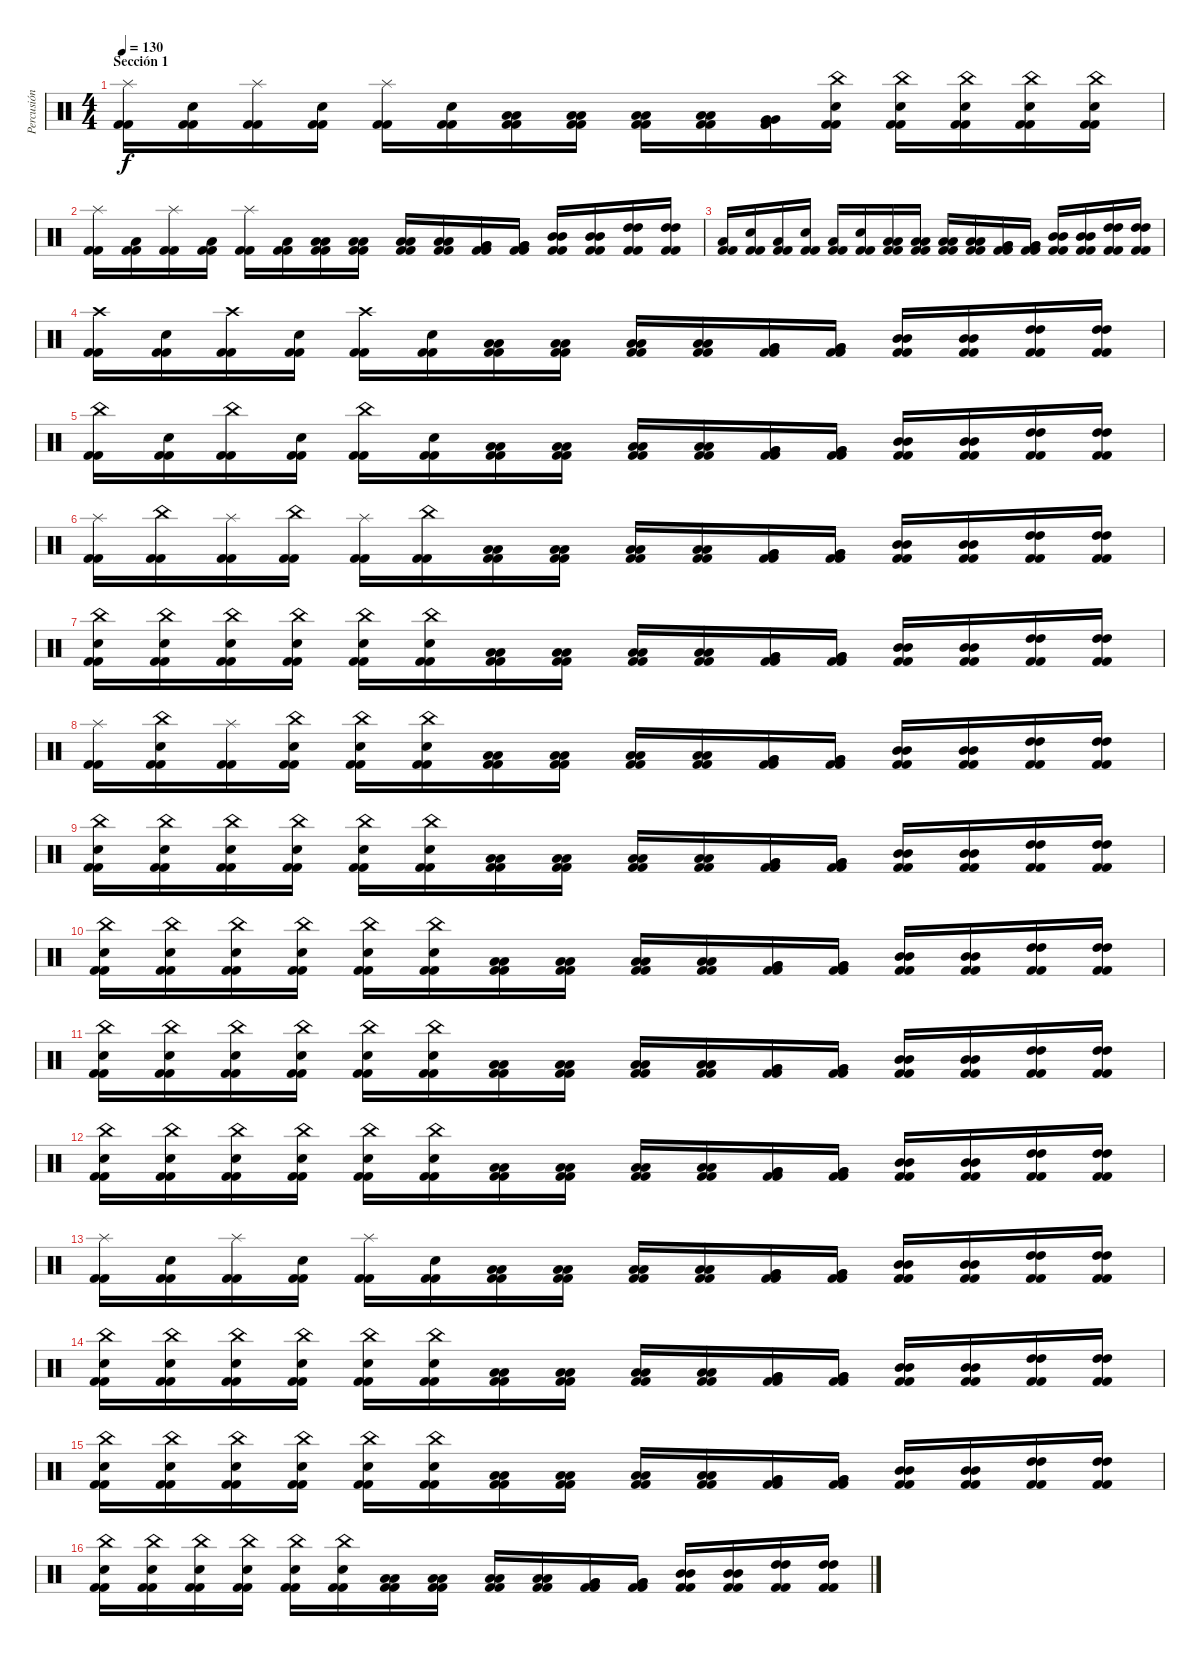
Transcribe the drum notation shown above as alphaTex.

\track ("Percusión" "Percusión") {instrument percussion}
\staff {score}
\articulation defaults
\ts (4 4)
\section ("" "Sección 1")
\tempo 130
\clef neutral
\ks c
("Splash (hit)" "Kick (hit) 2" "Kick (hit) 2").16{dy f volume 0} ("Electric Snare (hit)" "Kick (hit) 2" "Kick (hit) 2").16{volume 16} ("Splash (hit)" "Kick (hit) 2" "Kick (hit) 2").16 ("Electric Snare (hit)" "Kick (hit) 2" "Kick (hit) 2").16 ("Splash (hit)" "Kick (hit) 2" "Kick (hit) 2").16 ("Electric Snare (hit)" "Kick (hit) 2" "Kick (hit) 2").16 ("Low Tom (hit)" "Low Tom (hit)" "Kick (hit) 2" "Kick (hit) 2").16 ("Low Tom (hit)" "Low Tom (hit)" "Kick (hit) 2" "Kick (hit) 2").16 ("Low Floor Tom (hit)" "Low Floor Tom (hit)" "Kick (hit) 2" "Kick (hit) 2").16 ("Low Floor Tom (hit)" "Low Floor Tom (hit)" "Kick (hit) 2" "Kick (hit) 2").16 ("Very Low Tom (hit)" "Very Low Tom (hit)" "Kick (hit) 2" "Kick (hit) 2").16 ("Electric Snare (hit)" "China (hit)" "Kick (hit) 2" "Kick (hit) 2").16 ("Electric Snare (hit)" "China (hit)" "Kick (hit) 2" "Kick (hit) 2").16 ("Electric Snare (hit)" "China (hit)" "Kick (hit) 2" "Kick (hit) 2").16 ("Electric Snare (hit)" "China (hit)" "Kick (hit) 2" "Kick (hit) 2").16 ("Electric Snare (hit)" "China (hit)" "Kick (hit) 2" "Kick (hit) 2").16 |
("Splash (hit)" "Kick (hit) 2" "Kick (hit) 2").16 ("Low Tom (hit)" "Kick (hit) 2" "Kick (hit) 2").16 ("Splash (hit)" "Kick (hit) 2" "Kick (hit) 2").16 ("Low Tom (hit)" "Kick (hit) 2" "Kick (hit) 2").16 ("Splash (hit)" "Kick (hit) 2" "Kick (hit) 2").16 ("Low Tom (hit)" "Kick (hit) 2" "Kick (hit) 2").16 ("Low Tom (hit)" "Low Tom (hit)" "Kick (hit) 2" "Kick (hit) 2").16 ("Low Tom (hit)" "Low Tom (hit)" "Kick (hit) 2" "Kick (hit) 2").16 ("Low Floor Tom (hit)" "Low Floor Tom (hit)" "Kick (hit) 2" "Kick (hit) 2").16 ("Low Floor Tom (hit)" "Low Floor Tom (hit)" "Kick (hit) 2" "Kick (hit) 2").16 ("Very Low Tom (hit)" "Very Low Tom (hit)" "Kick (hit) 2" "Kick (hit) 2").16 ("Very Low Tom (hit)" "Very Low Tom (hit)" "Kick (hit) 2" "Kick (hit) 2").16 ("Mid Tom (hit)" "Mid Tom (hit)" "Kick (hit) 2" "Kick (hit) 2").16 ("Mid Tom (hit)" "Mid Tom (hit)" "Kick (hit) 2" "Kick (hit) 2").16 ("High Tom (hit)" "High Tom (hit)" "Kick (hit) 2" "Kick (hit) 2").16 ("High Tom (hit)" "High Tom (hit)" "Kick (hit) 2" "Kick (hit) 2").16 |
("Low Tom (hit)" "Kick (hit) 2" "Kick (hit) 2").16 ("Electric Snare (hit)" "Kick (hit) 2" "Kick (hit) 2").16 ("Low Tom (hit)" "Kick (hit) 2" "Kick (hit) 2").16 ("Electric Snare (hit)" "Kick (hit) 2" "Kick (hit) 2").16 ("Low Tom (hit)" "Kick (hit) 2" "Kick (hit) 2").16 ("Electric Snare (hit)" "Kick (hit) 2" "Kick (hit) 2").16 ("Low Tom (hit)" "Low Tom (hit)" "Kick (hit) 2" "Kick (hit) 2").16 ("Low Tom (hit)" "Low Tom (hit)" "Kick (hit) 2" "Kick (hit) 2").16 ("Low Floor Tom (hit)" "Low Floor Tom (hit)" "Kick (hit) 2" "Kick (hit) 2").16 ("Low Floor Tom (hit)" "Low Floor Tom (hit)" "Kick (hit) 2" "Kick (hit) 2").16 ("Very Low Tom (hit)" "Very Low Tom (hit)" "Kick (hit) 2" "Kick (hit) 2").16 ("Very Low Tom (hit)" "Very Low Tom (hit)" "Kick (hit) 2" "Kick (hit) 2").16 ("Mid Tom (hit)" "Mid Tom (hit)" "Kick (hit) 2" "Kick (hit) 2").16 ("Mid Tom (hit)" "Mid Tom (hit)" "Kick (hit) 2" "Kick (hit) 2").16 ("High Tom (hit)" "High Tom (hit)" "Kick (hit) 2" "Kick (hit) 2").16 ("High Tom (hit)" "High Tom (hit)" "Kick (hit) 2" "Kick (hit) 2").16 |
("Crash high (hit)" "Kick (hit) 2" "Kick (hit) 2").16 ("Electric Snare (hit)" "Kick (hit) 2" "Kick (hit) 2").16 ("Crash high (hit)" "Kick (hit) 2" "Kick (hit) 2").16 ("Electric Snare (hit)" "Kick (hit) 2" "Kick (hit) 2").16 ("Crash high (hit)" "Kick (hit) 2" "Kick (hit) 2").16 ("Electric Snare (hit)" "Kick (hit) 2" "Kick (hit) 2").16 ("Low Tom (hit)" "Low Tom (hit)" "Kick (hit) 2" "Kick (hit) 2").16 ("Low Tom (hit)" "Low Tom (hit)" "Kick (hit) 2" "Kick (hit) 2").16 ("Low Floor Tom (hit)" "Low Floor Tom (hit)" "Kick (hit) 2" "Kick (hit) 2").16 ("Low Floor Tom (hit)" "Low Floor Tom (hit)" "Kick (hit) 2" "Kick (hit) 2").16 ("Very Low Tom (hit)" "Very Low Tom (hit)" "Kick (hit) 2" "Kick (hit) 2").16 ("Very Low Tom (hit)" "Very Low Tom (hit)" "Kick (hit) 2" "Kick (hit) 2").16 ("Mid Tom (hit)" "Mid Tom (hit)" "Kick (hit) 2" "Kick (hit) 2").16 ("Mid Tom (hit)" "Mid Tom (hit)" "Kick (hit) 2" "Kick (hit) 2").16 ("High Tom (hit)" "High Tom (hit)" "Kick (hit) 2" "Kick (hit) 2").16 ("High Tom (hit)" "High Tom (hit)" "Kick (hit) 2" "Kick (hit) 2").16 |
("China (hit)" "Kick (hit) 2" "Kick (hit) 2").16 ("Electric Snare (hit)" "Kick (hit) 2" "Kick (hit) 2").16 ("China (hit)" "Kick (hit) 2" "Kick (hit) 2").16 ("Electric Snare (hit)" "Kick (hit) 2" "Kick (hit) 2").16 ("China (hit)" "Kick (hit) 2" "Kick (hit) 2").16 ("Electric Snare (hit)" "Kick (hit) 2" "Kick (hit) 2").16 ("Low Tom (hit)" "Low Tom (hit)" "Kick (hit) 2" "Kick (hit) 2").16 ("Low Tom (hit)" "Low Tom (hit)" "Kick (hit) 2" "Kick (hit) 2").16 ("Low Floor Tom (hit)" "Low Floor Tom (hit)" "Kick (hit) 2" "Kick (hit) 2").16 ("Low Floor Tom (hit)" "Low Floor Tom (hit)" "Kick (hit) 2" "Kick (hit) 2").16 ("Very Low Tom (hit)" "Very Low Tom (hit)" "Kick (hit) 2" "Kick (hit) 2").16 ("Very Low Tom (hit)" "Very Low Tom (hit)" "Kick (hit) 2" "Kick (hit) 2").16 ("Mid Tom (hit)" "Mid Tom (hit)" "Kick (hit) 2" "Kick (hit) 2").16 ("Mid Tom (hit)" "Mid Tom (hit)" "Kick (hit) 2" "Kick (hit) 2").16 ("High Tom (hit)" "High Tom (hit)" "Kick (hit) 2" "Kick (hit) 2").16 ("High Tom (hit)" "High Tom (hit)" "Kick (hit) 2" "Kick (hit) 2").16 |
("Splash (hit)" "Kick (hit) 2" "Kick (hit) 2").16 ("China (hit)" "Kick (hit) 2" "Kick (hit) 2").16 ("Splash (hit)" "Kick (hit) 2" "Kick (hit) 2").16 ("China (hit)" "Kick (hit) 2" "Kick (hit) 2").16 ("Splash (hit)" "Kick (hit) 2" "Kick (hit) 2").16 ("China (hit)" "Kick (hit) 2" "Kick (hit) 2").16 ("Low Tom (hit)" "Low Tom (hit)" "Kick (hit) 2" "Kick (hit) 2").16 ("Low Tom (hit)" "Low Tom (hit)" "Kick (hit) 2" "Kick (hit) 2").16 ("Low Floor Tom (hit)" "Low Floor Tom (hit)" "Kick (hit) 2" "Kick (hit) 2").16 ("Low Floor Tom (hit)" "Low Floor Tom (hit)" "Kick (hit) 2" "Kick (hit) 2").16 ("Very Low Tom (hit)" "Very Low Tom (hit)" "Kick (hit) 2" "Kick (hit) 2").16 ("Very Low Tom (hit)" "Very Low Tom (hit)" "Kick (hit) 2" "Kick (hit) 2").16 ("Mid Tom (hit)" "Mid Tom (hit)" "Kick (hit) 2" "Kick (hit) 2").16 ("Mid Tom (hit)" "Mid Tom (hit)" "Kick (hit) 2" "Kick (hit) 2").16 ("High Tom (hit)" "High Tom (hit)" "Kick (hit) 2" "Kick (hit) 2").16 ("High Tom (hit)" "High Tom (hit)" "Kick (hit) 2" "Kick (hit) 2").16 |
("Electric Snare (hit)" "China (hit)" "Kick (hit) 2" "Kick (hit) 2").16 ("Electric Snare (hit)" "China (hit)" "Kick (hit) 2" "Kick (hit) 2").16 ("Electric Snare (hit)" "China (hit)" "Kick (hit) 2" "Kick (hit) 2").16 ("Electric Snare (hit)" "China (hit)" "Kick (hit) 2" "Kick (hit) 2").16 ("Electric Snare (hit)" "China (hit)" "Kick (hit) 2" "Kick (hit) 2").16 ("Electric Snare (hit)" "China (hit)" "Kick (hit) 2" "Kick (hit) 2").16 ("Low Tom (hit)" "Low Tom (hit)" "Kick (hit) 2" "Kick (hit) 2").16 ("Low Tom (hit)" "Low Tom (hit)" "Kick (hit) 2" "Kick (hit) 2").16 ("Low Floor Tom (hit)" "Low Floor Tom (hit)" "Kick (hit) 2" "Kick (hit) 2").16 ("Low Floor Tom (hit)" "Low Floor Tom (hit)" "Kick (hit) 2" "Kick (hit) 2").16 ("Very Low Tom (hit)" "Very Low Tom (hit)" "Kick (hit) 2" "Kick (hit) 2").16 ("Very Low Tom (hit)" "Very Low Tom (hit)" "Kick (hit) 2" "Kick (hit) 2").16 ("Mid Tom (hit)" "Mid Tom (hit)" "Kick (hit) 2" "Kick (hit) 2").16 ("Mid Tom (hit)" "Mid Tom (hit)" "Kick (hit) 2" "Kick (hit) 2").16 ("High Tom (hit)" "High Tom (hit)" "Kick (hit) 2" "Kick (hit) 2").16 ("High Tom (hit)" "High Tom (hit)" "Kick (hit) 2" "Kick (hit) 2").16 |
("Splash (hit)" "Kick (hit) 2" "Kick (hit) 2").16 ("Electric Snare (hit)" "China (hit)" "Kick (hit) 2" "Kick (hit) 2").16 ("Splash (hit)" "Kick (hit) 2" "Kick (hit) 2").16 ("Electric Snare (hit)" "China (hit)" "Kick (hit) 2" "Kick (hit) 2").16 ("Electric Snare (hit)" "China (hit)" "Kick (hit) 2" "Kick (hit) 2").16 ("Electric Snare (hit)" "China (hit)" "Kick (hit) 2" "Kick (hit) 2").16 ("Low Tom (hit)" "Low Tom (hit)" "Kick (hit) 2" "Kick (hit) 2").16 ("Low Tom (hit)" "Low Tom (hit)" "Kick (hit) 2" "Kick (hit) 2").16 ("Low Floor Tom (hit)" "Low Floor Tom (hit)" "Kick (hit) 2" "Kick (hit) 2").16 ("Low Floor Tom (hit)" "Low Floor Tom (hit)" "Kick (hit) 2" "Kick (hit) 2").16 ("Very Low Tom (hit)" "Very Low Tom (hit)" "Kick (hit) 2" "Kick (hit) 2").16 ("Very Low Tom (hit)" "Very Low Tom (hit)" "Kick (hit) 2" "Kick (hit) 2").16 ("Mid Tom (hit)" "Mid Tom (hit)" "Kick (hit) 2" "Kick (hit) 2").16 ("Mid Tom (hit)" "Mid Tom (hit)" "Kick (hit) 2" "Kick (hit) 2").16 ("High Tom (hit)" "High Tom (hit)" "Kick (hit) 2" "Kick (hit) 2").16 ("High Tom (hit)" "High Tom (hit)" "Kick (hit) 2" "Kick (hit) 2").16 |
("Electric Snare (hit)" "China (hit)" "Kick (hit) 2" "Kick (hit) 2").16 ("Electric Snare (hit)" "China (hit)" "Kick (hit) 2" "Kick (hit) 2").16 ("Electric Snare (hit)" "China (hit)" "Kick (hit) 2" "Kick (hit) 2").16 ("Electric Snare (hit)" "China (hit)" "Kick (hit) 2" "Kick (hit) 2").16 ("Electric Snare (hit)" "China (hit)" "Kick (hit) 2" "Kick (hit) 2").16 ("Electric Snare (hit)" "China (hit)" "Kick (hit) 2" "Kick (hit) 2").16 ("Low Tom (hit)" "Low Tom (hit)" "Kick (hit) 2" "Kick (hit) 2").16 ("Low Tom (hit)" "Low Tom (hit)" "Kick (hit) 2" "Kick (hit) 2").16 ("Low Floor Tom (hit)" "Low Floor Tom (hit)" "Kick (hit) 2" "Kick (hit) 2").16 ("Low Floor Tom (hit)" "Low Floor Tom (hit)" "Kick (hit) 2" "Kick (hit) 2").16 ("Very Low Tom (hit)" "Very Low Tom (hit)" "Kick (hit) 2" "Kick (hit) 2").16 ("Very Low Tom (hit)" "Very Low Tom (hit)" "Kick (hit) 2" "Kick (hit) 2").16 ("Mid Tom (hit)" "Mid Tom (hit)" "Kick (hit) 2" "Kick (hit) 2").16 ("Mid Tom (hit)" "Mid Tom (hit)" "Kick (hit) 2" "Kick (hit) 2").16 ("High Tom (hit)" "High Tom (hit)" "Kick (hit) 2" "Kick (hit) 2").16 ("High Tom (hit)" "High Tom (hit)" "Kick (hit) 2" "Kick (hit) 2").16 |
("Electric Snare (hit)" "China (hit)" "Kick (hit) 2" "Kick (hit) 2").16 ("Electric Snare (hit)" "China (hit)" "Kick (hit) 2" "Kick (hit) 2").16 ("Electric Snare (hit)" "China (hit)" "Kick (hit) 2" "Kick (hit) 2").16 ("Electric Snare (hit)" "China (hit)" "Kick (hit) 2" "Kick (hit) 2").16 ("Electric Snare (hit)" "China (hit)" "Kick (hit) 2" "Kick (hit) 2").16 ("Electric Snare (hit)" "China (hit)" "Kick (hit) 2" "Kick (hit) 2").16 ("Low Tom (hit)" "Low Tom (hit)" "Kick (hit) 2" "Kick (hit) 2").16 ("Low Tom (hit)" "Low Tom (hit)" "Kick (hit) 2" "Kick (hit) 2").16 ("Low Floor Tom (hit)" "Low Floor Tom (hit)" "Kick (hit) 2" "Kick (hit) 2").16 ("Low Floor Tom (hit)" "Low Floor Tom (hit)" "Kick (hit) 2" "Kick (hit) 2").16 ("Very Low Tom (hit)" "Very Low Tom (hit)" "Kick (hit) 2" "Kick (hit) 2").16 ("Very Low Tom (hit)" "Very Low Tom (hit)" "Kick (hit) 2" "Kick (hit) 2").16 ("Mid Tom (hit)" "Mid Tom (hit)" "Kick (hit) 2" "Kick (hit) 2").16 ("Mid Tom (hit)" "Mid Tom (hit)" "Kick (hit) 2" "Kick (hit) 2").16 ("High Tom (hit)" "High Tom (hit)" "Kick (hit) 2" "Kick (hit) 2").16 ("High Tom (hit)" "High Tom (hit)" "Kick (hit) 2" "Kick (hit) 2").16 |
("Electric Snare (hit)" "China (hit)" "Kick (hit) 2" "Kick (hit) 2").16 ("Electric Snare (hit)" "China (hit)" "Kick (hit) 2" "Kick (hit) 2").16 ("Electric Snare (hit)" "China (hit)" "Kick (hit) 2" "Kick (hit) 2").16 ("Electric Snare (hit)" "China (hit)" "Kick (hit) 2" "Kick (hit) 2").16 ("Electric Snare (hit)" "China (hit)" "Kick (hit) 2" "Kick (hit) 2").16 ("Electric Snare (hit)" "China (hit)" "Kick (hit) 2" "Kick (hit) 2").16 ("Low Tom (hit)" "Low Tom (hit)" "Kick (hit) 2" "Kick (hit) 2").16 ("Low Tom (hit)" "Low Tom (hit)" "Kick (hit) 2" "Kick (hit) 2").16 ("Low Floor Tom (hit)" "Low Floor Tom (hit)" "Kick (hit) 2" "Kick (hit) 2").16 ("Low Floor Tom (hit)" "Low Floor Tom (hit)" "Kick (hit) 2" "Kick (hit) 2").16 ("Very Low Tom (hit)" "Very Low Tom (hit)" "Kick (hit) 2" "Kick (hit) 2").16 ("Very Low Tom (hit)" "Very Low Tom (hit)" "Kick (hit) 2" "Kick (hit) 2").16 ("Mid Tom (hit)" "Mid Tom (hit)" "Kick (hit) 2" "Kick (hit) 2").16 ("Mid Tom (hit)" "Mid Tom (hit)" "Kick (hit) 2" "Kick (hit) 2").16 ("High Tom (hit)" "High Tom (hit)" "Kick (hit) 2" "Kick (hit) 2").16 ("High Tom (hit)" "High Tom (hit)" "Kick (hit) 2" "Kick (hit) 2").16 |
("Electric Snare (hit)" "China (hit)" "Kick (hit) 2" "Kick (hit) 2").16 ("Electric Snare (hit)" "China (hit)" "Kick (hit) 2" "Kick (hit) 2").16 ("Electric Snare (hit)" "China (hit)" "Kick (hit) 2" "Kick (hit) 2").16 ("Electric Snare (hit)" "China (hit)" "Kick (hit) 2" "Kick (hit) 2").16 ("Electric Snare (hit)" "China (hit)" "Kick (hit) 2" "Kick (hit) 2").16 ("Electric Snare (hit)" "China (hit)" "Kick (hit) 2" "Kick (hit) 2").16 ("Low Tom (hit)" "Low Tom (hit)" "Kick (hit) 2" "Kick (hit) 2").16 ("Low Tom (hit)" "Low Tom (hit)" "Kick (hit) 2" "Kick (hit) 2").16 ("Low Floor Tom (hit)" "Low Floor Tom (hit)" "Kick (hit) 2" "Kick (hit) 2").16 ("Low Floor Tom (hit)" "Low Floor Tom (hit)" "Kick (hit) 2" "Kick (hit) 2").16 ("Very Low Tom (hit)" "Very Low Tom (hit)" "Kick (hit) 2" "Kick (hit) 2").16 ("Very Low Tom (hit)" "Very Low Tom (hit)" "Kick (hit) 2" "Kick (hit) 2").16 ("Mid Tom (hit)" "Mid Tom (hit)" "Kick (hit) 2" "Kick (hit) 2").16 ("Mid Tom (hit)" "Mid Tom (hit)" "Kick (hit) 2" "Kick (hit) 2").16 ("High Tom (hit)" "High Tom (hit)" "Kick (hit) 2" "Kick (hit) 2").16 ("High Tom (hit)" "High Tom (hit)" "Kick (hit) 2" "Kick (hit) 2").16 |
("Splash (hit)" "Kick (hit) 2" "Kick (hit) 2").16 ("Electric Snare (hit)" "Kick (hit) 2" "Kick (hit) 2").16 ("Splash (hit)" "Kick (hit) 2" "Kick (hit) 2").16 ("Electric Snare (hit)" "Kick (hit) 2" "Kick (hit) 2").16 ("Splash (hit)" "Kick (hit) 2" "Kick (hit) 2").16 ("Electric Snare (hit)" "Kick (hit) 2" "Kick (hit) 2").16 ("Low Tom (hit)" "Low Tom (hit)" "Kick (hit) 2" "Kick (hit) 2").16 ("Low Tom (hit)" "Low Tom (hit)" "Kick (hit) 2" "Kick (hit) 2").16 ("Low Floor Tom (hit)" "Low Floor Tom (hit)" "Kick (hit) 2" "Kick (hit) 2").16 ("Low Floor Tom (hit)" "Low Floor Tom (hit)" "Kick (hit) 2" "Kick (hit) 2").16 ("Very Low Tom (hit)" "Very Low Tom (hit)" "Kick (hit) 2" "Kick (hit) 2").16 ("Very Low Tom (hit)" "Very Low Tom (hit)" "Kick (hit) 2" "Kick (hit) 2").16 ("Mid Tom (hit)" "Mid Tom (hit)" "Kick (hit) 2" "Kick (hit) 2").16 ("Mid Tom (hit)" "Mid Tom (hit)" "Kick (hit) 2" "Kick (hit) 2").16 ("High Tom (hit)" "High Tom (hit)" "Kick (hit) 2" "Kick (hit) 2").16 ("High Tom (hit)" "High Tom (hit)" "Kick (hit) 2" "Kick (hit) 2").16 |
("Electric Snare (hit)" "China (hit)" "Kick (hit) 2" "Kick (hit) 2").16 ("Electric Snare (hit)" "China (hit)" "Kick (hit) 2" "Kick (hit) 2").16 ("Electric Snare (hit)" "China (hit)" "Kick (hit) 2" "Kick (hit) 2").16 ("Electric Snare (hit)" "China (hit)" "Kick (hit) 2" "Kick (hit) 2").16 ("Electric Snare (hit)" "China (hit)" "Kick (hit) 2" "Kick (hit) 2").16 ("Electric Snare (hit)" "China (hit)" "Kick (hit) 2" "Kick (hit) 2").16 ("Low Tom (hit)" "Low Tom (hit)" "Kick (hit) 2" "Kick (hit) 2").16 ("Low Tom (hit)" "Low Tom (hit)" "Kick (hit) 2" "Kick (hit) 2").16 ("Low Floor Tom (hit)" "Low Floor Tom (hit)" "Kick (hit) 2" "Kick (hit) 2").16 ("Low Floor Tom (hit)" "Low Floor Tom (hit)" "Kick (hit) 2" "Kick (hit) 2").16 ("Very Low Tom (hit)" "Very Low Tom (hit)" "Kick (hit) 2" "Kick (hit) 2").16 ("Very Low Tom (hit)" "Very Low Tom (hit)" "Kick (hit) 2" "Kick (hit) 2").16 ("Mid Tom (hit)" "Mid Tom (hit)" "Kick (hit) 2" "Kick (hit) 2").16 ("Mid Tom (hit)" "Mid Tom (hit)" "Kick (hit) 2" "Kick (hit) 2").16 ("High Tom (hit)" "High Tom (hit)" "Kick (hit) 2" "Kick (hit) 2").16 ("High Tom (hit)" "High Tom (hit)" "Kick (hit) 2" "Kick (hit) 2").16 |
("Electric Snare (hit)" "China (hit)" "Kick (hit) 2" "Kick (hit) 2").16 ("Electric Snare (hit)" "China (hit)" "Kick (hit) 2" "Kick (hit) 2").16 ("Electric Snare (hit)" "China (hit)" "Kick (hit) 2" "Kick (hit) 2").16 ("Electric Snare (hit)" "China (hit)" "Kick (hit) 2" "Kick (hit) 2").16 ("Electric Snare (hit)" "China (hit)" "Kick (hit) 2" "Kick (hit) 2").16 ("Electric Snare (hit)" "China (hit)" "Kick (hit) 2" "Kick (hit) 2").16 ("Low Tom (hit)" "Low Tom (hit)" "Kick (hit) 2" "Kick (hit) 2").16 ("Low Tom (hit)" "Low Tom (hit)" "Kick (hit) 2" "Kick (hit) 2").16 ("Low Floor Tom (hit)" "Low Floor Tom (hit)" "Kick (hit) 2" "Kick (hit) 2").16 ("Low Floor Tom (hit)" "Low Floor Tom (hit)" "Kick (hit) 2" "Kick (hit) 2").16 ("Very Low Tom (hit)" "Very Low Tom (hit)" "Kick (hit) 2" "Kick (hit) 2").16 ("Very Low Tom (hit)" "Very Low Tom (hit)" "Kick (hit) 2" "Kick (hit) 2").16 ("Mid Tom (hit)" "Mid Tom (hit)" "Kick (hit) 2" "Kick (hit) 2").16 ("Mid Tom (hit)" "Mid Tom (hit)" "Kick (hit) 2" "Kick (hit) 2").16 ("High Tom (hit)" "High Tom (hit)" "Kick (hit) 2" "Kick (hit) 2").16 ("High Tom (hit)" "High Tom (hit)" "Kick (hit) 2" "Kick (hit) 2").16 |
("Electric Snare (hit)" "China (hit)" "Kick (hit) 2" "Kick (hit) 2").16 ("Electric Snare (hit)" "China (hit)" "Kick (hit) 2" "Kick (hit) 2").16 ("Electric Snare (hit)" "China (hit)" "Kick (hit) 2" "Kick (hit) 2").16 ("Electric Snare (hit)" "China (hit)" "Kick (hit) 2" "Kick (hit) 2").16 ("Electric Snare (hit)" "China (hit)" "Kick (hit) 2" "Kick (hit) 2").16 ("Electric Snare (hit)" "China (hit)" "Kick (hit) 2" "Kick (hit) 2").16 ("Low Tom (hit)" "Low Tom (hit)" "Kick (hit) 2" "Kick (hit) 2").16 ("Low Tom (hit)" "Low Tom (hit)" "Kick (hit) 2" "Kick (hit) 2").16 ("Low Floor Tom (hit)" "Low Floor Tom (hit)" "Kick (hit) 2" "Kick (hit) 2").16 ("Low Floor Tom (hit)" "Low Floor Tom (hit)" "Kick (hit) 2" "Kick (hit) 2").16 ("Very Low Tom (hit)" "Very Low Tom (hit)" "Kick (hit) 2" "Kick (hit) 2").16 ("Very Low Tom (hit)" "Very Low Tom (hit)" "Kick (hit) 2" "Kick (hit) 2").16 ("Mid Tom (hit)" "Mid Tom (hit)" "Kick (hit) 2" "Kick (hit) 2").16 ("Mid Tom (hit)" "Mid Tom (hit)" "Kick (hit) 2" "Kick (hit) 2").16 ("High Tom (hit)" "High Tom (hit)" "Kick (hit) 2" "Kick (hit) 2").16 ("High Tom (hit)" "High Tom (hit)" "Kick (hit) 2" "Kick (hit) 2").16
